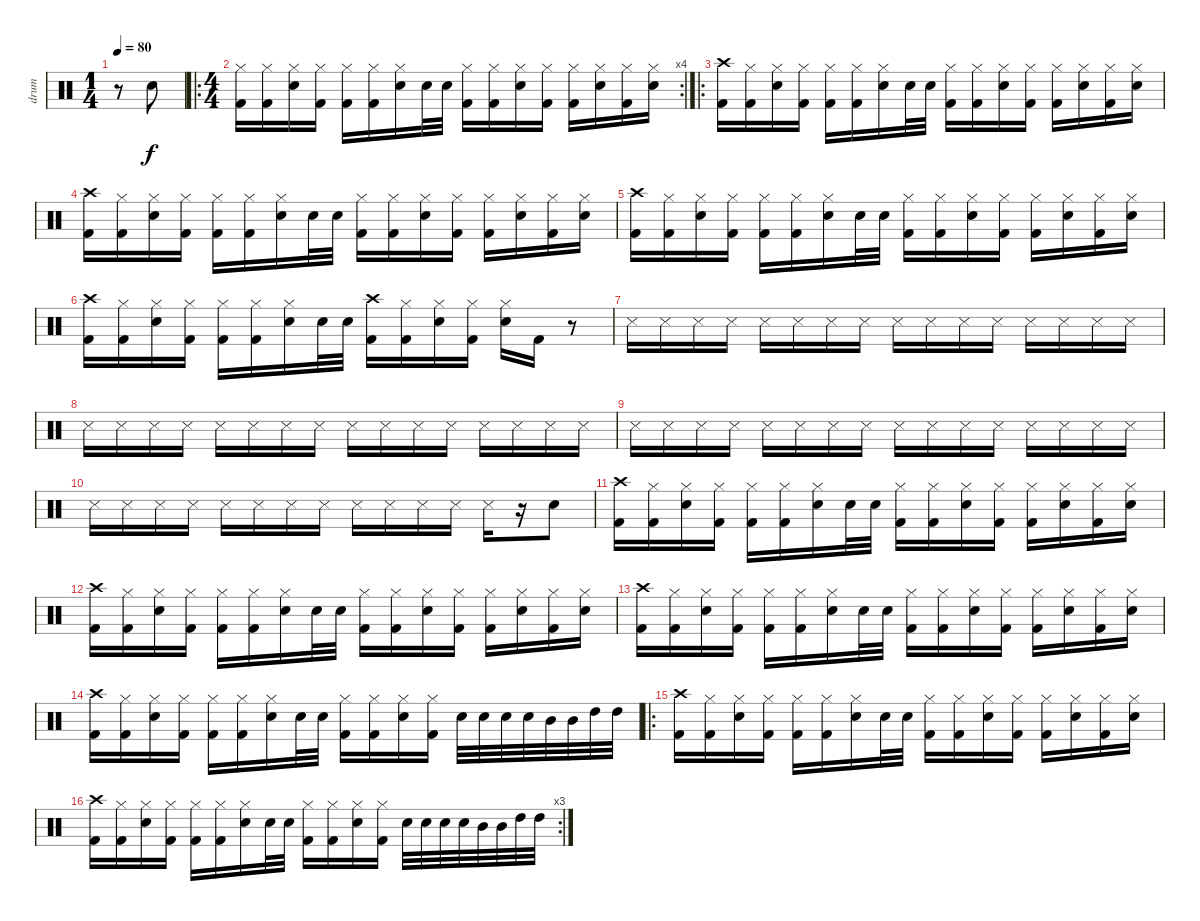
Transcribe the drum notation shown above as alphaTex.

\track ("drum" "drum") {instrument percussion}
\staff {score}
\articulation defaults
\ts (1 4)
\tempo 80
\clef neutral
\ks c
r.8{dy f} "Electric Snare (hit)".8 |
\ro
\rc 4
\ts (4 4)
("Hi-Hat (closed)" "Kick (hit) 2").16 ("Hi-Hat (closed)" "Kick (hit) 2").16 ("Hi-Hat (closed)" "Electric Snare (hit)").16 ("Hi-Hat (closed)" "Kick (hit) 2").16 ("Hi-Hat (closed)" "Kick (hit) 2").16 ("Hi-Hat (closed)" "Kick (hit) 2").16 ("Hi-Hat (closed)" "Electric Snare (hit)").16 "Electric Snare (hit)".32 "Electric Snare (hit)".32 ("Hi-Hat (closed)" "Kick (hit) 2").16 ("Hi-Hat (closed)" "Kick (hit) 2").16 ("Hi-Hat (closed)" "Electric Snare (hit)").16 ("Hi-Hat (closed)" "Kick (hit) 2").16 ("Hi-Hat (closed)" "Kick (hit) 2").16 ("Hi-Hat (closed)" "Electric Snare (hit)").16 ("Hi-Hat (closed)" "Kick (hit) 2").16 ("Hi-Hat (closed)" "Electric Snare (hit)").16 |
\ro
("Crash high (hit)" "Kick (hit) 2").16 ("Hi-Hat (closed)" "Kick (hit) 2").16 ("Hi-Hat (closed)" "Electric Snare (hit)").16 ("Hi-Hat (closed)" "Kick (hit) 2").16 ("Hi-Hat (closed)" "Kick (hit) 2").16 ("Hi-Hat (closed)" "Kick (hit) 2").16 ("Hi-Hat (closed)" "Electric Snare (hit)").16 "Electric Snare (hit)".32 "Electric Snare (hit)".32 ("Hi-Hat (closed)" "Kick (hit) 2").16 ("Hi-Hat (closed)" "Kick (hit) 2").16 ("Hi-Hat (closed)" "Electric Snare (hit)").16 ("Hi-Hat (closed)" "Kick (hit) 2").16 ("Hi-Hat (closed)" "Kick (hit) 2").16 ("Hi-Hat (closed)" "Electric Snare (hit)").16 ("Hi-Hat (closed)" "Kick (hit) 2").16 ("Hi-Hat (closed)" "Electric Snare (hit)").16 |
("Crash high (hit)" "Kick (hit) 2").16 ("Hi-Hat (closed)" "Kick (hit) 2").16 ("Hi-Hat (closed)" "Electric Snare (hit)").16 ("Hi-Hat (closed)" "Kick (hit) 2").16 ("Hi-Hat (closed)" "Kick (hit) 2").16 ("Hi-Hat (closed)" "Kick (hit) 2").16 ("Hi-Hat (closed)" "Electric Snare (hit)").16 "Electric Snare (hit)".32 "Electric Snare (hit)".32 ("Hi-Hat (closed)" "Kick (hit) 2").16 ("Hi-Hat (closed)" "Kick (hit) 2").16 ("Hi-Hat (closed)" "Electric Snare (hit)").16 ("Hi-Hat (closed)" "Kick (hit) 2").16 ("Hi-Hat (closed)" "Kick (hit) 2").16 ("Hi-Hat (closed)" "Electric Snare (hit)").16 ("Hi-Hat (closed)" "Kick (hit) 2").16 ("Hi-Hat (closed)" "Electric Snare (hit)").16 |
("Crash high (hit)" "Kick (hit) 2").16 ("Hi-Hat (closed)" "Kick (hit) 2").16 ("Hi-Hat (closed)" "Electric Snare (hit)").16 ("Hi-Hat (closed)" "Kick (hit) 2").16 ("Hi-Hat (closed)" "Kick (hit) 2").16 ("Hi-Hat (closed)" "Kick (hit) 2").16 ("Hi-Hat (closed)" "Electric Snare (hit)").16 "Electric Snare (hit)".32 "Electric Snare (hit)".32 ("Hi-Hat (closed)" "Kick (hit) 2").16 ("Hi-Hat (closed)" "Kick (hit) 2").16 ("Hi-Hat (closed)" "Electric Snare (hit)").16 ("Hi-Hat (closed)" "Kick (hit) 2").16 ("Hi-Hat (closed)" "Kick (hit) 2").16 ("Hi-Hat (closed)" "Electric Snare (hit)").16 ("Hi-Hat (closed)" "Kick (hit) 2").16 ("Hi-Hat (closed)" "Electric Snare (hit)").16 |
("Crash high (hit)" "Kick (hit) 2").16 ("Hi-Hat (closed)" "Kick (hit) 2").16 ("Hi-Hat (closed)" "Electric Snare (hit)").16 ("Hi-Hat (closed)" "Kick (hit) 2").16 ("Hi-Hat (closed)" "Kick (hit) 2").16 ("Hi-Hat (closed)" "Kick (hit) 2").16 ("Hi-Hat (closed)" "Electric Snare (hit)").16 "Electric Snare (hit)".32 "Electric Snare (hit)".32 ("Crash high (hit)" "Kick (hit) 2").16 ("Hi-Hat (closed)" "Kick (hit) 2").16 ("Hi-Hat (closed)" "Electric Snare (hit)").16 ("Hi-Hat (closed)" "Kick (hit) 2").16 ("Hi-Hat (closed)" "Electric Snare (hit)").16 "Kick (hit) 2".16 r.8 |
"Metronome (hit)".16 "Metronome (hit)".16 "Metronome (hit)".16 "Metronome (hit)".16 "Metronome (hit)".16 "Metronome (hit)".16 "Metronome (hit)".16 "Metronome (hit)".16 "Metronome (hit)".16 "Metronome (hit)".16 "Metronome (hit)".16 "Metronome (hit)".16 "Metronome (hit)".16 "Metronome (hit)".16 "Metronome (hit)".16 "Metronome (hit)".16 |
"Metronome (hit)".16 "Metronome (hit)".16 "Metronome (hit)".16 "Metronome (hit)".16 "Metronome (hit)".16 "Metronome (hit)".16 "Metronome (hit)".16 "Metronome (hit)".16 "Metronome (hit)".16 "Metronome (hit)".16 "Metronome (hit)".16 "Metronome (hit)".16 "Metronome (hit)".16 "Metronome (hit)".16 "Metronome (hit)".16 "Metronome (hit)".16 |
"Metronome (hit)".16 "Metronome (hit)".16 "Metronome (hit)".16 "Metronome (hit)".16 "Metronome (hit)".16 "Metronome (hit)".16 "Metronome (hit)".16 "Metronome (hit)".16 "Metronome (hit)".16 "Metronome (hit)".16 "Metronome (hit)".16 "Metronome (hit)".16 "Metronome (hit)".16 "Metronome (hit)".16 "Metronome (hit)".16 "Metronome (hit)".16 |
"Metronome (hit)".16 "Metronome (hit)".16 "Metronome (hit)".16 "Metronome (hit)".16 "Metronome (hit)".16 "Metronome (hit)".16 "Metronome (hit)".16 "Metronome (hit)".16 "Metronome (hit)".16 "Metronome (hit)".16 "Metronome (hit)".16 "Metronome (hit)".16 "Metronome (hit)".16 r.16 "Electric Snare (hit)".8 |
("Crash high (hit)" "Kick (hit) 2").16 ("Hi-Hat (closed)" "Kick (hit) 2").16 ("Hi-Hat (closed)" "Electric Snare (hit)").16 ("Hi-Hat (closed)" "Kick (hit) 2").16 ("Hi-Hat (closed)" "Kick (hit) 2").16 ("Hi-Hat (closed)" "Kick (hit) 2").16 ("Hi-Hat (closed)" "Electric Snare (hit)").16 "Electric Snare (hit)".32 "Electric Snare (hit)".32 ("Hi-Hat (closed)" "Kick (hit) 2").16 ("Hi-Hat (closed)" "Kick (hit) 2").16 ("Hi-Hat (closed)" "Electric Snare (hit)").16 ("Hi-Hat (closed)" "Kick (hit) 2").16 ("Hi-Hat (closed)" "Kick (hit) 2").16 ("Hi-Hat (closed)" "Electric Snare (hit)").16 ("Hi-Hat (closed)" "Kick (hit) 2").16 ("Hi-Hat (closed)" "Electric Snare (hit)").16 |
("Crash high (hit)" "Kick (hit) 2").16 ("Hi-Hat (closed)" "Kick (hit) 2").16 ("Hi-Hat (closed)" "Electric Snare (hit)").16 ("Hi-Hat (closed)" "Kick (hit) 2").16 ("Hi-Hat (closed)" "Kick (hit) 2").16 ("Hi-Hat (closed)" "Kick (hit) 2").16 ("Hi-Hat (closed)" "Electric Snare (hit)").16 "Electric Snare (hit)".32 "Electric Snare (hit)".32 ("Hi-Hat (closed)" "Kick (hit) 2").16 ("Hi-Hat (closed)" "Kick (hit) 2").16 ("Hi-Hat (closed)" "Electric Snare (hit)").16 ("Hi-Hat (closed)" "Kick (hit) 2").16 ("Hi-Hat (closed)" "Kick (hit) 2").16 ("Hi-Hat (closed)" "Electric Snare (hit)").16 ("Hi-Hat (closed)" "Kick (hit) 2").16 ("Hi-Hat (closed)" "Electric Snare (hit)").16 |
("Crash high (hit)" "Kick (hit) 2").16 ("Hi-Hat (closed)" "Kick (hit) 2").16 ("Hi-Hat (closed)" "Electric Snare (hit)").16 ("Hi-Hat (closed)" "Kick (hit) 2").16 ("Hi-Hat (closed)" "Kick (hit) 2").16 ("Hi-Hat (closed)" "Kick (hit) 2").16 ("Hi-Hat (closed)" "Electric Snare (hit)").16 "Electric Snare (hit)".32 "Electric Snare (hit)".32 ("Hi-Hat (closed)" "Kick (hit) 2").16 ("Hi-Hat (closed)" "Kick (hit) 2").16 ("Hi-Hat (closed)" "Electric Snare (hit)").16 ("Hi-Hat (closed)" "Kick (hit) 2").16 ("Hi-Hat (closed)" "Kick (hit) 2").16 ("Hi-Hat (closed)" "Electric Snare (hit)").16 ("Hi-Hat (closed)" "Kick (hit) 2").16 ("Hi-Hat (closed)" "Electric Snare (hit)").16 |
("Crash high (hit)" "Kick (hit) 2").16 ("Hi-Hat (closed)" "Kick (hit) 2").16 ("Hi-Hat (closed)" "Electric Snare (hit)").16 ("Hi-Hat (closed)" "Kick (hit) 2").16 ("Hi-Hat (closed)" "Kick (hit) 2").16 ("Hi-Hat (closed)" "Kick (hit) 2").16 ("Hi-Hat (closed)" "Electric Snare (hit)").16 "Electric Snare (hit)".32 "Electric Snare (hit)".32 ("Hi-Hat (closed)" "Kick (hit) 2").16 ("Hi-Hat (closed)" "Kick (hit) 2").16 ("Hi-Hat (closed)" "Electric Snare (hit)").16 ("Hi-Hat (closed)" "Kick (hit) 2").16 "Electric Snare (hit)".32 "Electric Snare (hit)".32 "Electric Snare (hit)".32 "Electric Snare (hit)".32 "Mid Tom (hit)".32 "Mid Tom (hit)".32 "High Tom (hit)".32 "High Tom (hit)".32 |
\ro
("Crash high (hit)" "Kick (hit) 2").16 ("Hi-Hat (closed)" "Kick (hit) 2").16 ("Hi-Hat (closed)" "Electric Snare (hit)").16 ("Hi-Hat (closed)" "Kick (hit) 2").16 ("Hi-Hat (closed)" "Kick (hit) 2").16 ("Hi-Hat (closed)" "Kick (hit) 2").16 ("Hi-Hat (closed)" "Electric Snare (hit)").16 "Electric Snare (hit)".32 "Electric Snare (hit)".32 ("Hi-Hat (closed)" "Kick (hit) 2").16 ("Hi-Hat (closed)" "Kick (hit) 2").16 ("Hi-Hat (closed)" "Electric Snare (hit)").16 ("Hi-Hat (closed)" "Kick (hit) 2").16 ("Hi-Hat (closed)" "Kick (hit) 2").16 ("Hi-Hat (closed)" "Electric Snare (hit)").16 ("Hi-Hat (closed)" "Kick (hit) 2").16 ("Hi-Hat (closed)" "Electric Snare (hit)").16 |
\rc 3
("Crash high (hit)" "Kick (hit) 2").16 ("Hi-Hat (closed)" "Kick (hit) 2").16 ("Hi-Hat (closed)" "Electric Snare (hit)").16 ("Hi-Hat (closed)" "Kick (hit) 2").16 ("Hi-Hat (closed)" "Kick (hit) 2").16 ("Hi-Hat (closed)" "Kick (hit) 2").16 ("Hi-Hat (closed)" "Electric Snare (hit)").16 "Electric Snare (hit)".32 "Electric Snare (hit)".32 ("Hi-Hat (closed)" "Kick (hit) 2").16 ("Hi-Hat (closed)" "Kick (hit) 2").16 ("Hi-Hat (closed)" "Electric Snare (hit)").16 ("Hi-Hat (closed)" "Kick (hit) 2").16 "Electric Snare (hit)".32 "Electric Snare (hit)".32 "Electric Snare (hit)".32 "Electric Snare (hit)".32 "Mid Tom (hit)".32 "Mid Tom (hit)".32 "High Tom (hit)".32 "High Tom (hit)".32
